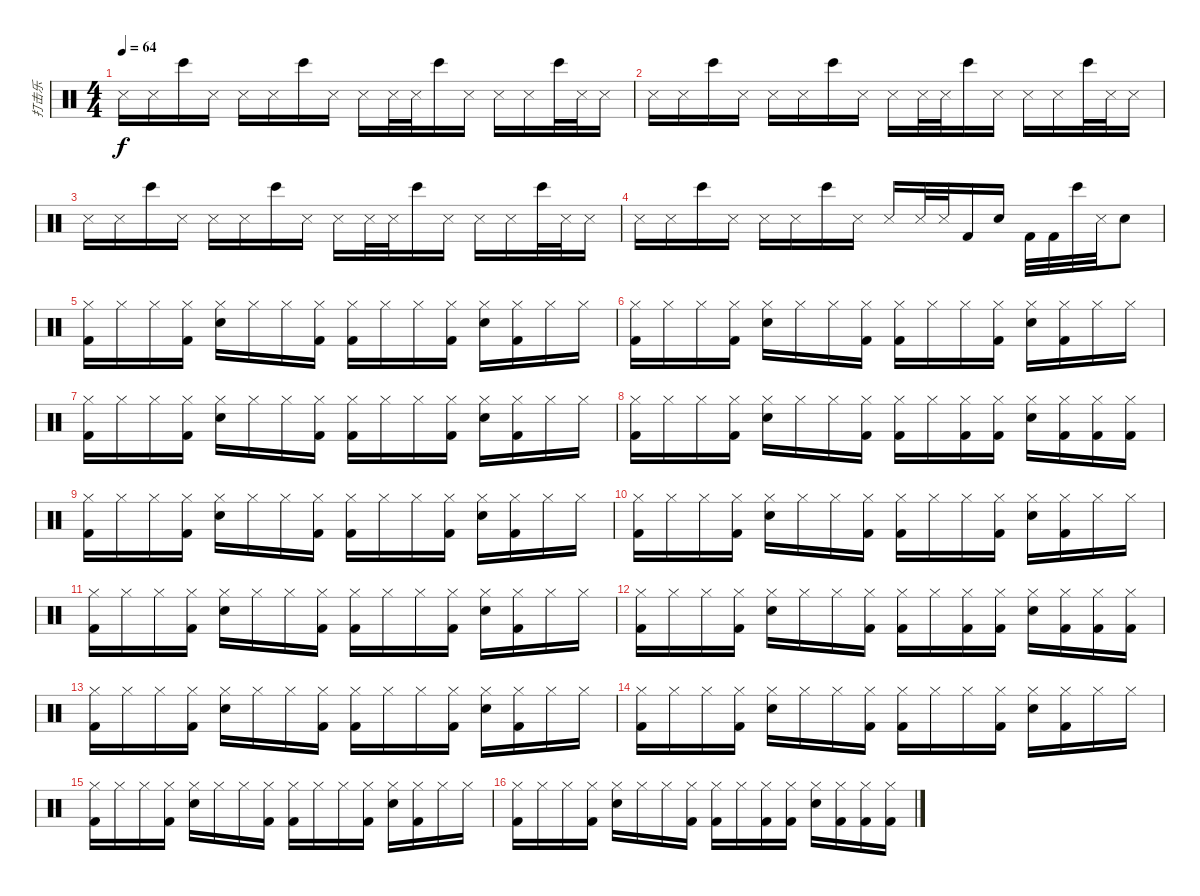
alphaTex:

\track ("打击乐" "打击乐") {instrument percussion}
\staff {score}
\articulation defaults
\ts (4 4)
\tempo 64
\clef neutral
\ks c "Snare (side stick) 3".16{dy f} "Snare (side stick) 3".16 "Bongo High (hit)".16 "Snare (side stick) 3".16 "Snare (side stick) 3".16 "Snare (side stick) 3".16 "Bongo High (hit)".16 "Snare (side stick) 3".16 "Snare (side stick) 3".16 "Snare (side stick) 3".32 "Snare (side stick) 3".32 "Bongo High (hit)".16 "Snare (side stick) 3".16 "Snare (side stick) 3".16 "Snare (side stick) 3".16 "Bongo High (hit)".32 "Snare (side stick) 3".32 "Snare (side stick) 3".16
|
"Snare (side stick) 3".16 "Snare (side stick) 3".16 "Bongo High (hit)".16 "Snare (side stick) 3".16 "Snare (side stick) 3".16 "Snare (side stick) 3".16 "Bongo High (hit)".16 "Snare (side stick) 3".16 "Snare (side stick) 3".16 "Snare (side stick) 3".32 "Snare (side stick) 3".32 "Bongo High (hit)".16 "Snare (side stick) 3".16 "Snare (side stick) 3".16 "Snare (side stick) 3".16 "Bongo High (hit)".32 "Snare (side stick) 3".32 "Snare (side stick) 3".16 |
"Snare (side stick) 3".16 "Snare (side stick) 3".16 "Bongo High (hit)".16 "Snare (side stick) 3".16 "Snare (side stick) 3".16 "Snare (side stick) 3".16 "Bongo High (hit)".16 "Snare (side stick) 3".16 "Snare (side stick) 3".16 "Snare (side stick) 3".32 "Snare (side stick) 3".32 "Bongo High (hit)".16 "Snare (side stick) 3".16 "Snare (side stick) 3".16 "Snare (side stick) 3".16 "Bongo High (hit)".32 "Snare (side stick) 3".32 "Snare (side stick) 3".16 |
"Snare (side stick) 3".16 "Snare (side stick) 3".16 "Bongo High (hit)".16 "Snare (side stick) 3".16 "Snare (side stick) 3".16 "Snare (side stick) 3".16 "Bongo High (hit)".16 "Snare (side stick) 3".16 "Snare (side stick) 3".16 "Snare (side stick) 3".32 "Snare (side stick) 3".32 "Kick (hit) 2".16 "Snare (hit) 2".16 "Kick (hit) 2".32 "Kick (hit) 2".32 "Bongo High (hit)".32 "Snare (side stick) 3".32 "Snare (hit) 2".8 |
("Hi-Hat (closed)" "Kick (hit) 2").16 "Hi-Hat (closed)".16 "Hi-Hat (closed)".16 ("Hi-Hat (closed)" "Kick (hit) 2").16 ("Hi-Hat (closed)" "Snare (hit) 2").16 "Hi-Hat (closed)".16 "Hi-Hat (closed)".16 ("Hi-Hat (closed)" "Kick (hit) 2").16 ("Hi-Hat (closed)" "Kick (hit) 2").16 "Hi-Hat (closed)".16 "Hi-Hat (closed)".16 ("Hi-Hat (closed)" "Kick (hit) 2").16 ("Hi-Hat (closed)" "Snare (hit) 2").16 ("Hi-Hat (closed)" "Kick (hit) 2").16 "Hi-Hat (closed)".16 "Hi-Hat (closed)".16 |
("Hi-Hat (closed)" "Kick (hit) 2").16 "Hi-Hat (closed)".16 "Hi-Hat (closed)".16 ("Hi-Hat (closed)" "Kick (hit) 2").16 ("Hi-Hat (closed)" "Snare (hit) 2").16 "Hi-Hat (closed)".16 "Hi-Hat (closed)".16 ("Hi-Hat (closed)" "Kick (hit) 2").16 ("Hi-Hat (closed)" "Kick (hit) 2").16 "Hi-Hat (closed)".16 "Hi-Hat (closed)".16 ("Hi-Hat (closed)" "Kick (hit) 2").16 ("Hi-Hat (closed)" "Snare (hit) 2").16 ("Hi-Hat (closed)" "Kick (hit) 2").16 "Hi-Hat (closed)".16 "Hi-Hat (closed)".16 |
("Hi-Hat (closed)" "Kick (hit) 2").16 "Hi-Hat (closed)".16 "Hi-Hat (closed)".16 ("Hi-Hat (closed)" "Kick (hit) 2").16 ("Hi-Hat (closed)" "Snare (hit) 2").16 "Hi-Hat (closed)".16 "Hi-Hat (closed)".16 ("Hi-Hat (closed)" "Kick (hit) 2").16 ("Hi-Hat (closed)" "Kick (hit) 2").16 "Hi-Hat (closed)".16 "Hi-Hat (closed)".16 ("Hi-Hat (closed)" "Kick (hit) 2").16 ("Hi-Hat (closed)" "Snare (hit) 2").16 ("Hi-Hat (closed)" "Kick (hit) 2").16 "Hi-Hat (closed)".16 "Hi-Hat (closed)".16 |
("Hi-Hat (closed)" "Kick (hit) 2").16 "Hi-Hat (closed)".16 "Hi-Hat (closed)".16 ("Hi-Hat (closed)" "Kick (hit) 2").16 ("Hi-Hat (closed)" "Snare (hit) 2").16 "Hi-Hat (closed)".16 "Hi-Hat (closed)".16 ("Hi-Hat (closed)" "Kick (hit) 2").16 ("Hi-Hat (closed)" "Kick (hit) 2").16 "Hi-Hat (closed)".16 ("Hi-Hat (closed)" "Kick (hit) 2").16 ("Hi-Hat (closed)" "Kick (hit) 2").16 ("Hi-Hat (closed)" "Snare (hit) 2").16 ("Hi-Hat (closed)" "Kick (hit) 2").16 ("Hi-Hat (closed)" "Kick (hit) 2").16 ("Hi-Hat (closed)" "Kick (hit) 2").16 |
("Hi-Hat (closed)" "Kick (hit) 2").16 "Hi-Hat (closed)".16 "Hi-Hat (closed)".16 ("Hi-Hat (closed)" "Kick (hit) 2").16 ("Hi-Hat (closed)" "Snare (hit) 2").16 "Hi-Hat (closed)".16 "Hi-Hat (closed)".16 ("Hi-Hat (closed)" "Kick (hit) 2").16 ("Hi-Hat (closed)" "Kick (hit) 2").16 "Hi-Hat (closed)".16 "Hi-Hat (closed)".16 ("Hi-Hat (closed)" "Kick (hit) 2").16 ("Hi-Hat (closed)" "Snare (hit) 2").16 ("Hi-Hat (closed)" "Kick (hit) 2").16 "Hi-Hat (closed)".16 "Hi-Hat (closed)".16 |
("Hi-Hat (closed)" "Kick (hit) 2").16 "Hi-Hat (closed)".16 "Hi-Hat (closed)".16 ("Hi-Hat (closed)" "Kick (hit) 2").16 ("Hi-Hat (closed)" "Snare (hit) 2").16 "Hi-Hat (closed)".16 "Hi-Hat (closed)".16 ("Hi-Hat (closed)" "Kick (hit) 2").16 ("Hi-Hat (closed)" "Kick (hit) 2").16 "Hi-Hat (closed)".16 "Hi-Hat (closed)".16 ("Hi-Hat (closed)" "Kick (hit) 2").16 ("Hi-Hat (closed)" "Snare (hit) 2").16 ("Hi-Hat (closed)" "Kick (hit) 2").16 "Hi-Hat (closed)".16 "Hi-Hat (closed)".16 |
("Hi-Hat (closed)" "Kick (hit) 2").16 "Hi-Hat (closed)".16 "Hi-Hat (closed)".16 ("Hi-Hat (closed)" "Kick (hit) 2").16 ("Hi-Hat (closed)" "Snare (hit) 2").16 "Hi-Hat (closed)".16 "Hi-Hat (closed)".16 ("Hi-Hat (closed)" "Kick (hit) 2").16 ("Hi-Hat (closed)" "Kick (hit) 2").16 "Hi-Hat (closed)".16 "Hi-Hat (closed)".16 ("Hi-Hat (closed)" "Kick (hit) 2").16 ("Hi-Hat (closed)" "Snare (hit) 2").16 ("Hi-Hat (closed)" "Kick (hit) 2").16 "Hi-Hat (closed)".16 "Hi-Hat (closed)".16 |
("Hi-Hat (closed)" "Kick (hit) 2").16 "Hi-Hat (closed)".16 "Hi-Hat (closed)".16 ("Hi-Hat (closed)" "Kick (hit) 2").16 ("Hi-Hat (closed)" "Snare (hit) 2").16 "Hi-Hat (closed)".16 "Hi-Hat (closed)".16 ("Hi-Hat (closed)" "Kick (hit) 2").16 ("Hi-Hat (closed)" "Kick (hit) 2").16 "Hi-Hat (closed)".16 ("Hi-Hat (closed)" "Kick (hit) 2").16 ("Hi-Hat (closed)" "Kick (hit) 2").16 ("Hi-Hat (closed)" "Snare (hit) 2").16 ("Hi-Hat (closed)" "Kick (hit) 2").16 ("Hi-Hat (closed)" "Kick (hit) 2").16 ("Hi-Hat (closed)" "Kick (hit) 2").16 |
("Hi-Hat (closed)" "Kick (hit) 2").16 "Hi-Hat (closed)".16 "Hi-Hat (closed)".16 ("Hi-Hat (closed)" "Kick (hit) 2").16 ("Hi-Hat (closed)" "Snare (hit) 2").16 "Hi-Hat (closed)".16 "Hi-Hat (closed)".16 ("Hi-Hat (closed)" "Kick (hit) 2").16 ("Hi-Hat (closed)" "Kick (hit) 2").16 "Hi-Hat (closed)".16 "Hi-Hat (closed)".16 ("Hi-Hat (closed)" "Kick (hit) 2").16 ("Hi-Hat (closed)" "Snare (hit) 2").16 ("Hi-Hat (closed)" "Kick (hit) 2").16 "Hi-Hat (closed)".16 "Hi-Hat (closed)".16 |
("Hi-Hat (closed)" "Kick (hit) 2").16 "Hi-Hat (closed)".16 "Hi-Hat (closed)".16 ("Hi-Hat (closed)" "Kick (hit) 2").16 ("Hi-Hat (closed)" "Snare (hit) 2").16 "Hi-Hat (closed)".16 "Hi-Hat (closed)".16 ("Hi-Hat (closed)" "Kick (hit) 2").16 ("Hi-Hat (closed)" "Kick (hit) 2").16 "Hi-Hat (closed)".16 "Hi-Hat (closed)".16 ("Hi-Hat (closed)" "Kick (hit) 2").16 ("Hi-Hat (closed)" "Snare (hit) 2").16 ("Hi-Hat (closed)" "Kick (hit) 2").16 "Hi-Hat (closed)".16 "Hi-Hat (closed)".16 |
("Hi-Hat (closed)" "Kick (hit) 2").16 "Hi-Hat (closed)".16 "Hi-Hat (closed)".16 ("Hi-Hat (closed)" "Kick (hit) 2").16 ("Hi-Hat (closed)" "Snare (hit) 2").16 "Hi-Hat (closed)".16 "Hi-Hat (closed)".16 ("Hi-Hat (closed)" "Kick (hit) 2").16 ("Hi-Hat (closed)" "Kick (hit) 2").16 "Hi-Hat (closed)".16 "Hi-Hat (closed)".16 ("Hi-Hat (closed)" "Kick (hit) 2").16 ("Hi-Hat (closed)" "Snare (hit) 2").16 ("Hi-Hat (closed)" "Kick (hit) 2").16 "Hi-Hat (closed)".16 "Hi-Hat (closed)".16 |
("Hi-Hat (closed)" "Kick (hit) 2").16 "Hi-Hat (closed)".16 "Hi-Hat (closed)".16 ("Hi-Hat (closed)" "Kick (hit) 2").16 ("Hi-Hat (closed)" "Snare (hit) 2").16 "Hi-Hat (closed)".16 "Hi-Hat (closed)".16 ("Hi-Hat (closed)" "Kick (hit) 2").16 ("Hi-Hat (closed)" "Kick (hit) 2").16 "Hi-Hat (closed)".16 ("Hi-Hat (closed)" "Kick (hit) 2").16 ("Hi-Hat (closed)" "Kick (hit) 2").16 ("Hi-Hat (closed)" "Snare (hit) 2").16 ("Hi-Hat (closed)" "Kick (hit) 2").16 ("Hi-Hat (closed)" "Kick (hit) 2").16 ("Hi-Hat (closed)" "Kick (hit) 2").16
